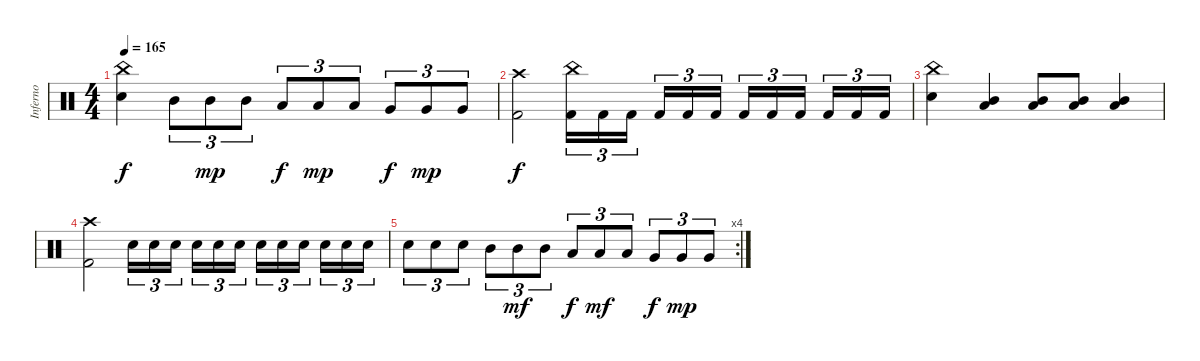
\track ("Inferno" "Inferno") {instrument percussion}
\staff {score}
\articulation defaults
\ts (4 4)
\tempo 165
\clef neutral
\ks c
("China (hit)" "Electric Snare (hit)").4{dy f} "Mid Tom (hit)".8{tu (3 2)} "Mid Tom (hit)".8{tu (3 2) dy mp} "Mid Tom (hit)".8{tu (3 2)} "Low Tom (hit)".8{tu (3 2) dy f} "Low Tom (hit)".8{tu (3 2) dy mp} "Low Tom (hit)".8{tu (3 2)} "Very Low Tom (hit)".8{tu (3 2) dy f} "Very Low Tom (hit)".8{tu (3 2) dy mp} "Very Low Tom (hit)".8{tu (3 2)} |
("Crash high (hit)" "Kick (hit) 2").2{dy f} ("China (hit)" "Kick (hit) 2").16{tu (3 2)} "Kick (hit) 2".16{tu (3 2)} "Kick (hit) 2".16{tu (3 2) beam splitsecondary} "Kick (hit) 2".16{tu (3 2)} "Kick (hit) 2".16{tu (3 2)} "Kick (hit) 2".16{tu (3 2)} "Kick (hit) 2".16{tu (3 2)} "Kick (hit) 2".16{tu (3 2)} "Kick (hit) 2".16{tu (3 2) beam splitsecondary} "Kick (hit) 2".16{tu (3 2)} "Kick (hit) 2".16{tu (3 2)} "Kick (hit) 2".16{tu (3 2)} |
("China (hit)" "Electric Snare (hit)").4 ("Mid Tom (hit)" "Low Tom (hit)").4 ("Mid Tom (hit)" "Low Tom (hit)").8 ("Mid Tom (hit)" "Low Tom (hit)").8 ("Mid Tom (hit)" "Low Tom (hit)").4 |
("Crash high (hit)" "Kick (hit) 2").2 "Electric Snare (hit)".16{tu (3 2)} "Electric Snare (hit)".16{tu (3 2)} "Electric Snare (hit)".16{tu (3 2) beam splitsecondary} "Electric Snare (hit)".16{tu (3 2)} "Electric Snare (hit)".16{tu (3 2)} "Electric Snare (hit)".16{tu (3 2)} "Electric Snare (hit)".16{tu (3 2)} "Electric Snare (hit)".16{tu (3 2)} "Electric Snare (hit)".16{tu (3 2) beam splitsecondary} "Electric Snare (hit)".16{tu (3 2)} "Electric Snare (hit)".16{tu (3 2)} "Electric Snare (hit)".16{tu (3 2)} |
\rc 4 "Electric Snare (hit)".8{tu (3 2)} "Electric Snare (hit)".8{tu (3 2)} "Electric Snare (hit)".8{tu (3 2)} "Mid Tom (hit)".8{tu (3 2)} "Mid Tom (hit)".8{tu (3 2) dy mf} "Mid Tom (hit)".8{tu (3 2)} "Low Tom (hit)".8{tu (3 2) dy f} "Low Tom (hit)".8{tu (3 2) dy mf} "Low Tom (hit)".8{tu (3 2)} "Very Low Tom (hit)".8{tu (3 2) dy f} "Very Low Tom (hit)".8{tu (3 2) dy mp} "Very Low Tom (hit)".8{tu (3 2)}
